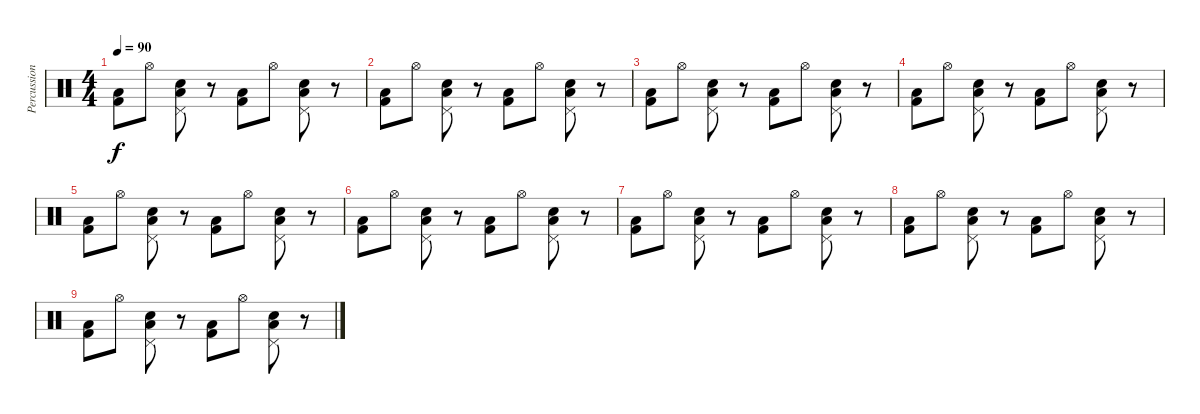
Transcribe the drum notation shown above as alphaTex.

\track ("Percussion" "Percussion") {instrument percussion}
\staff {score}
\articulation defaults
\ts (4 4)
\tempo 90
\clef neutral
\ks c
("Low Floor Tom (hit)" "Kick (hit) 2").8{dy f} "Hi-Hat (open)".8 ("Pedal Hi-Hat (hit)" "Low Floor Tom (hit)" "Snare (hit) 2").8 r.8 ("Low Floor Tom (hit)" "Kick (hit) 2").8 "Hi-Hat (open)".8 ("Pedal Hi-Hat (hit)" "Low Floor Tom (hit)" "Snare (hit) 2").8 r.8 |
("Low Floor Tom (hit)" "Kick (hit) 2").8 "Hi-Hat (open)".8 ("Pedal Hi-Hat (hit)" "Low Floor Tom (hit)" "Snare (hit) 2").8 r.8 ("Low Floor Tom (hit)" "Kick (hit) 2").8 "Hi-Hat (open)".8 ("Pedal Hi-Hat (hit)" "Low Floor Tom (hit)" "Snare (hit) 2").8 r.8 |
("Low Floor Tom (hit)" "Kick (hit) 2").8 "Hi-Hat (open)".8 ("Pedal Hi-Hat (hit)" "Low Floor Tom (hit)" "Snare (hit) 2").8 r.8 ("Low Floor Tom (hit)" "Kick (hit) 2").8 "Hi-Hat (open)".8 ("Pedal Hi-Hat (hit)" "Low Floor Tom (hit)" "Snare (hit) 2").8 r.8 |
("Low Floor Tom (hit)" "Kick (hit) 2").8 "Hi-Hat (open)".8 ("Pedal Hi-Hat (hit)" "Low Floor Tom (hit)" "Snare (hit) 2").8 r.8 ("Low Floor Tom (hit)" "Kick (hit) 2").8 "Hi-Hat (open)".8 ("Pedal Hi-Hat (hit)" "Low Floor Tom (hit)" "Snare (hit) 2").8 r.8 |
("Low Floor Tom (hit)" "Kick (hit) 2").8 "Hi-Hat (open)".8 ("Pedal Hi-Hat (hit)" "Low Floor Tom (hit)" "Snare (hit) 2").8 r.8 ("Low Floor Tom (hit)" "Kick (hit) 2").8 "Hi-Hat (open)".8 ("Pedal Hi-Hat (hit)" "Low Floor Tom (hit)" "Snare (hit) 2").8 r.8 |
("Low Floor Tom (hit)" "Kick (hit) 2").8 "Hi-Hat (open)".8 ("Pedal Hi-Hat (hit)" "Low Floor Tom (hit)" "Snare (hit) 2").8 r.8 ("Low Floor Tom (hit)" "Kick (hit) 2").8 "Hi-Hat (open)".8 ("Pedal Hi-Hat (hit)" "Low Floor Tom (hit)" "Snare (hit) 2").8 r.8 |
("Low Floor Tom (hit)" "Kick (hit) 2").8 "Hi-Hat (open)".8 ("Pedal Hi-Hat (hit)" "Low Floor Tom (hit)" "Snare (hit) 2").8 r.8 ("Low Floor Tom (hit)" "Kick (hit) 2").8 "Hi-Hat (open)".8 ("Pedal Hi-Hat (hit)" "Low Floor Tom (hit)" "Snare (hit) 2").8 r.8 |
("Low Floor Tom (hit)" "Kick (hit) 2").8 "Hi-Hat (open)".8 ("Pedal Hi-Hat (hit)" "Low Floor Tom (hit)" "Snare (hit) 2").8 r.8 ("Low Floor Tom (hit)" "Kick (hit) 2").8 "Hi-Hat (open)".8 ("Pedal Hi-Hat (hit)" "Low Floor Tom (hit)" "Snare (hit) 2").8 r.8 |
("Low Floor Tom (hit)" "Kick (hit) 2").8 "Hi-Hat (open)".8 ("Pedal Hi-Hat (hit)" "Low Floor Tom (hit)" "Snare (hit) 2").8 r.8 ("Low Floor Tom (hit)" "Kick (hit) 2").8 "Hi-Hat (open)".8 ("Pedal Hi-Hat (hit)" "Low Floor Tom (hit)" "Snare (hit) 2").8 r.8
